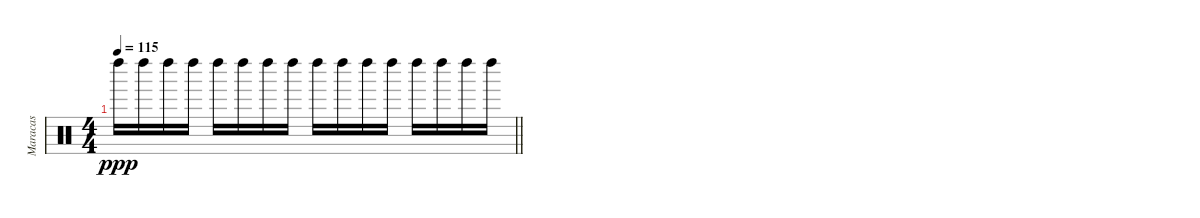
\track ("Maracas" "Maracas") {instrument percussion}
\staff {score}
\articulation defaults
\ts (4 4)
\tempo 115
\clef neutral
\barLineRight lightlight
\ks c "Left Maraca (hit)".16{dy ppp} "Left Maraca (hit)".16 "Left Maraca (hit)".16 "Left Maraca (hit)".16 "Left Maraca (hit)".16 "Left Maraca (hit)".16 "Left Maraca (hit)".16 "Left Maraca (hit)".16 "Left Maraca (hit)".16 "Left Maraca (hit)".16 "Left Maraca (hit)".16 "Left Maraca (hit)".16 "Left Maraca (hit)".16 "Left Maraca (hit)".16 "Left Maraca (hit)".16 "Left Maraca (hit)".16
